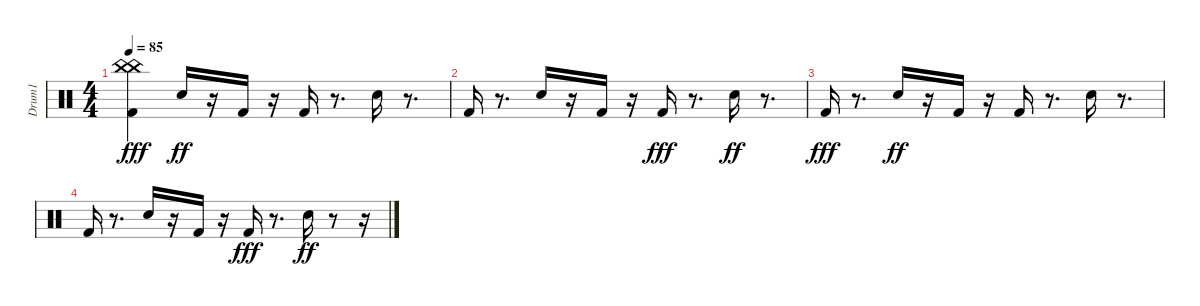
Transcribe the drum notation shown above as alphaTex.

\track ("Drum1" "Drum1") {instrument percussion}
\staff {score}
\articulation defaults
\ts (4 4)
\tempo 85
\clef neutral
\ks c
("China (hit)" "Kick (hit) 2" "China (hit)").4{dy fff} "Hand Clap (hit)".16{dy ff volume 16} r.16 "Kick (hit) 2".16{volume 15} r.16 "Kick (hit) 2".16{volume 15} r.8{d} "Hand Clap (hit)".16{volume 14} r.8{d} |
"Kick (hit) 2".16{volume 13} r.8{d} "Hand Clap (hit)".16{volume 12} r.16 "Kick (hit) 2".16{volume 12} r.16 "Kick (hit) 2".16{dy fff volume 11} r.8{d} "Hand Clap (hit)".16{dy ff volume 11} r.8{d} |
"Kick (hit) 2".16{dy fff volume 10} r.8{d} "Hand Clap (hit)".16{dy ff volume 9} r.16 "Kick (hit) 2".16{volume 9} r.16 "Kick (hit) 2".16{volume 8} r.8{d} "Hand Clap (hit)".16{volume 8} r.8{d} |
"Kick (hit) 2".16{volume 7} r.8{d} "Hand Clap (hit)".16{volume 6} r.16 "Kick (hit) 2".16{volume 4} r.16 "Kick (hit) 2".16{dy fff volume 3} r.8{d} "Hand Clap (hit)".16{dy ff volume 2} r.8 r.16
